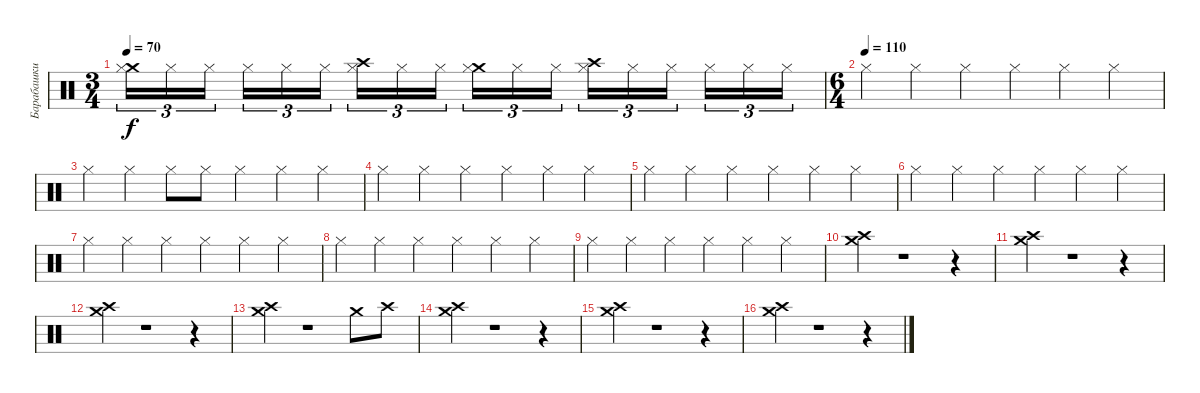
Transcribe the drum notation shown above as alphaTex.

\track ("Барабашки High" "Барабашки ") {instrument percussion}
\staff {score}
\articulation defaults
\ts (3 4)
\tempo 70
\clef neutral
\ks c
("Crash medium (hit)" "Hi-Hat (closed)").16{tu (3 2) dy f} "Hi-Hat (closed)".16{tu (3 2)} "Hi-Hat (closed)".16{tu (3 2) beam splitsecondary} "Hi-Hat (closed)".16{tu (3 2)} "Hi-Hat (closed)".16{tu (3 2)} "Hi-Hat (closed)".16{tu (3 2)} ("Crash high (hit)" "Hi-Hat (closed)").16{tu (3 2)} "Hi-Hat (closed)".16{tu (3 2)} "Hi-Hat (closed)".16{tu (3 2) beam splitsecondary} ("Crash medium (hit)" "Hi-Hat (closed)").16{tu (3 2)} "Hi-Hat (closed)".16{tu (3 2)} "Hi-Hat (closed)".16{tu (3 2)} ("Crash high (hit)" "Hi-Hat (closed)").16{tu (3 2)} "Hi-Hat (closed)".16{tu (3 2)} "Hi-Hat (closed)".16{tu (3 2) beam splitsecondary} "Hi-Hat (closed)".16{tu (3 2)} "Hi-Hat (closed)".16{tu (3 2)} "Hi-Hat (closed)".16{tu (3 2)} |
\ts (6 4)
\tempo (110)
"Hi-Hat (closed)".4 "Hi-Hat (closed)".4 "Hi-Hat (closed)".4 "Hi-Hat (closed)".4 "Hi-Hat (closed)".4 "Hi-Hat (closed)".4 |
"Hi-Hat (closed)".4 "Hi-Hat (closed)".4 "Hi-Hat (closed)".8 "Hi-Hat (closed)".8 "Hi-Hat (closed)".4 "Hi-Hat (closed)".4 "Hi-Hat (closed)".4 |
"Hi-Hat (closed)".4 "Hi-Hat (closed)".4 "Hi-Hat (closed)".4 "Hi-Hat (closed)".4 "Hi-Hat (closed)".4 "Hi-Hat (closed)".4 |
"Hi-Hat (closed)".4 "Hi-Hat (closed)".4 "Hi-Hat (closed)".4 "Hi-Hat (closed)".4 "Hi-Hat (closed)".4 "Hi-Hat (closed)".4 |
"Hi-Hat (closed)".4 "Hi-Hat (closed)".4 "Hi-Hat (closed)".4 "Hi-Hat (closed)".4 "Hi-Hat (closed)".4 "Hi-Hat (closed)".4 |
"Hi-Hat (closed)".4 "Hi-Hat (closed)".4 "Hi-Hat (closed)".4 "Hi-Hat (closed)".4 "Hi-Hat (closed)".4 "Hi-Hat (closed)".4 |
"Hi-Hat (closed)".4 "Hi-Hat (closed)".4 "Hi-Hat (closed)".4 "Hi-Hat (closed)".4 "Hi-Hat (closed)".4 "Hi-Hat (closed)".4 |
"Hi-Hat (closed)".4 "Hi-Hat (closed)".4 "Hi-Hat (closed)".4 "Hi-Hat (closed)".4 "Hi-Hat (closed)".4 "Hi-Hat (closed)".4 |
("Crash medium (hit)" "Crash high (hit)").4 r.1 r.4 |
("Crash medium (hit)" "Crash high (hit)").4 r.1 r.4 |
("Crash medium (hit)" "Crash high (hit)").4 r.1 r.4 |
("Crash medium (hit)" "Crash high (hit)").4 r.1 "Crash medium (hit)".8 "Crash high (hit)".8 |
("Crash medium (hit)" "Crash high (hit)").4 r.1 r.4 |
("Crash medium (hit)" "Crash high (hit)").4 r.1 r.4 |
("Crash medium (hit)" "Crash high (hit)").4 r.1 r.4
